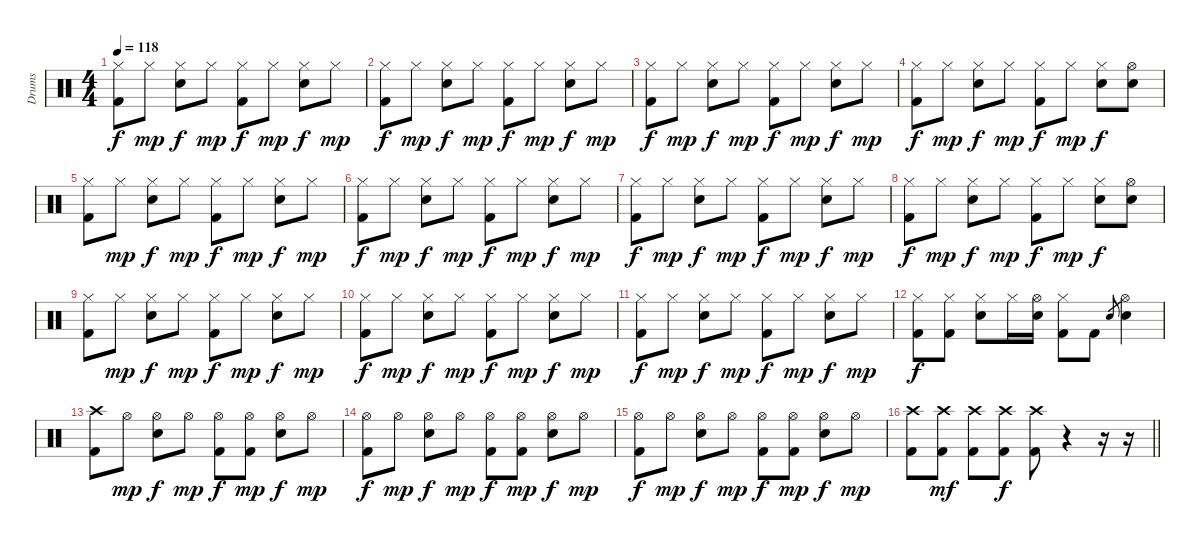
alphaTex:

\track ("Drums" "Drums") {instrument percussion}
\staff {score}
\articulation defaults
\ts (4 4)
\tempo 118
\clef neutral
\ks c
("Hi-Hat (closed)" "Kick (hit) 2").8{dy f} "Hi-Hat (closed)".8{dy mp} ("Hi-Hat (closed)" "Snare (hit) 2").8{dy f} "Hi-Hat (closed)".8{dy mp} ("Hi-Hat (closed)" "Kick (hit) 2").8{dy f} "Hi-Hat (closed)".8{dy mp} ("Hi-Hat (closed)" "Snare (hit) 2").8{dy f} "Hi-Hat (closed)".8{dy mp} |
("Hi-Hat (closed)" "Kick (hit) 2").8{dy f} "Hi-Hat (closed)".8{dy mp} ("Hi-Hat (closed)" "Snare (hit) 2").8{dy f} "Hi-Hat (closed)".8{dy mp} ("Hi-Hat (closed)" "Kick (hit) 2").8{dy f} "Hi-Hat (closed)".8{dy mp} ("Hi-Hat (closed)" "Snare (hit) 2").8{dy f} "Hi-Hat (closed)".8{dy mp} |
("Hi-Hat (closed)" "Kick (hit) 2").8{dy f} "Hi-Hat (closed)".8{dy mp} ("Hi-Hat (closed)" "Snare (hit) 2").8{dy f} "Hi-Hat (closed)".8{dy mp} ("Hi-Hat (closed)" "Kick (hit) 2").8{dy f} "Hi-Hat (closed)".8{dy mp} ("Hi-Hat (closed)" "Snare (hit) 2").8{dy f} "Hi-Hat (closed)".8{dy mp} |
("Hi-Hat (closed)" "Kick (hit) 2").8{dy f} "Hi-Hat (closed)".8{dy mp} ("Hi-Hat (closed)" "Snare (hit) 2").8{dy f} "Hi-Hat (closed)".8{dy mp} ("Hi-Hat (closed)" "Kick (hit) 2").8{dy f} "Hi-Hat (closed)".8{dy mp} ("Hi-Hat (closed)" "Snare (hit) 2").8{dy f} ("Hi-Hat (open)" "Snare (hit) 2").8 |
("Hi-Hat (closed)" "Kick (hit) 2").8 "Hi-Hat (closed)".8{dy mp} ("Hi-Hat (closed)" "Snare (hit) 2").8{dy f} "Hi-Hat (closed)".8{dy mp} ("Hi-Hat (closed)" "Kick (hit) 2").8{dy f} "Hi-Hat (closed)".8{dy mp} ("Hi-Hat (closed)" "Snare (hit) 2").8{dy f} "Hi-Hat (closed)".8{dy mp} |
("Hi-Hat (closed)" "Kick (hit) 2").8{dy f} "Hi-Hat (closed)".8{dy mp} ("Hi-Hat (closed)" "Snare (hit) 2").8{dy f} "Hi-Hat (closed)".8{dy mp} ("Hi-Hat (closed)" "Kick (hit) 2").8{dy f} "Hi-Hat (closed)".8{dy mp} ("Hi-Hat (closed)" "Snare (hit) 2").8{dy f} "Hi-Hat (closed)".8{dy mp} |
("Hi-Hat (closed)" "Kick (hit) 2").8{dy f} "Hi-Hat (closed)".8{dy mp} ("Hi-Hat (closed)" "Snare (hit) 2").8{dy f} "Hi-Hat (closed)".8{dy mp} ("Hi-Hat (closed)" "Kick (hit) 2").8{dy f} "Hi-Hat (closed)".8{dy mp} ("Hi-Hat (closed)" "Snare (hit) 2").8{dy f} "Hi-Hat (closed)".8{dy mp} |
("Hi-Hat (closed)" "Kick (hit) 2").8{dy f} "Hi-Hat (closed)".8{dy mp} ("Hi-Hat (closed)" "Snare (hit) 2").8{dy f} "Hi-Hat (closed)".8{dy mp} ("Hi-Hat (closed)" "Kick (hit) 2").8{dy f} "Hi-Hat (closed)".8{dy mp} ("Hi-Hat (closed)" "Snare (hit) 2").8{dy f} ("Hi-Hat (open)" "Snare (hit) 2").8 |
("Hi-Hat (closed)" "Kick (hit) 2").8 "Hi-Hat (closed)".8{dy mp} ("Hi-Hat (closed)" "Snare (hit) 2").8{dy f} "Hi-Hat (closed)".8{dy mp} ("Hi-Hat (closed)" "Kick (hit) 2").8{dy f} "Hi-Hat (closed)".8{dy mp} ("Hi-Hat (closed)" "Snare (hit) 2").8{dy f} "Hi-Hat (closed)".8{dy mp} |
("Hi-Hat (closed)" "Kick (hit) 2").8{dy f} "Hi-Hat (closed)".8{dy mp} ("Hi-Hat (closed)" "Snare (hit) 2").8{dy f} "Hi-Hat (closed)".8{dy mp} ("Hi-Hat (closed)" "Kick (hit) 2").8{dy f} "Hi-Hat (closed)".8{dy mp} ("Hi-Hat (closed)" "Snare (hit) 2").8{dy f} "Hi-Hat (closed)".8{dy mp} |
("Hi-Hat (closed)" "Kick (hit) 2").8{dy f} "Hi-Hat (closed)".8{dy mp} ("Hi-Hat (closed)" "Snare (hit) 2").8{dy f} "Hi-Hat (closed)".8{dy mp} ("Hi-Hat (closed)" "Kick (hit) 2").8{dy f} "Hi-Hat (closed)".8{dy mp} ("Hi-Hat (closed)" "Snare (hit) 2").8{dy f} "Hi-Hat (closed)".8{dy mp} |
("Hi-Hat (closed)" "Kick (hit) 2").8{dy f} ("Hi-Hat (closed)" "Kick (hit) 2").8 ("Hi-Hat (closed)" "Snare (hit) 2").8 "Hi-Hat (closed)".16 ("Hi-Hat (open)" "Snare (hit) 2").16 ("Hi-Hat (closed)" "Kick (hit) 2").8 "Kick (hit) 2".8 "Snare (hit) 2".8{gr} ("Hi-Hat (open)" "Snare (hit) 2").4 |
("Crash high (hit)" "Kick (hit) 2").8 "Hi-Hat (open)".8{dy mp} ("Hi-Hat (open)" "Snare (hit) 2").8{dy f} "Hi-Hat (open)".8{dy mp} ("Hi-Hat (open)" "Kick (hit) 2").8{dy f} ("Hi-Hat (open)" "Kick (hit) 2").8{dy mp} ("Hi-Hat (open)" "Snare (hit) 2").8{dy f} "Hi-Hat (open)".8{dy mp} |
("Hi-Hat (open)" "Kick (hit) 2").8{dy f} "Hi-Hat (open)".8{dy mp} ("Hi-Hat (open)" "Snare (hit) 2").8{dy f} "Hi-Hat (open)".8{dy mp} ("Hi-Hat (open)" "Kick (hit) 2").8{dy f} ("Hi-Hat (open)" "Kick (hit) 2").8{dy mp} ("Hi-Hat (open)" "Snare (hit) 2").8{dy f} "Hi-Hat (open)".8{dy mp} |
("Hi-Hat (open)" "Kick (hit) 2").8{dy f} "Hi-Hat (open)".8{dy mp} ("Hi-Hat (open)" "Snare (hit) 2").8{dy f} "Hi-Hat (open)".8{dy mp} ("Hi-Hat (open)" "Kick (hit) 2").8{dy f} ("Hi-Hat (open)" "Kick (hit) 2").8{dy mp} ("Hi-Hat (open)" "Snare (hit) 2").8{dy f} "Hi-Hat (open)".8{dy mp} |
\barLineRight lightlight
("Crash high (hit)" "Kick (hit) 2").8 ("Crash high (hit)" "Kick (hit) 2").8{dy mf} ("Crash high (hit)" "Kick (hit) 2").8 ("Crash high (hit)" "Kick (hit) 2").8{dy f} ("Crash high (hit)" "Kick (hit) 2").8 r.4{volume 0} r.16 r.16{volume 13}
